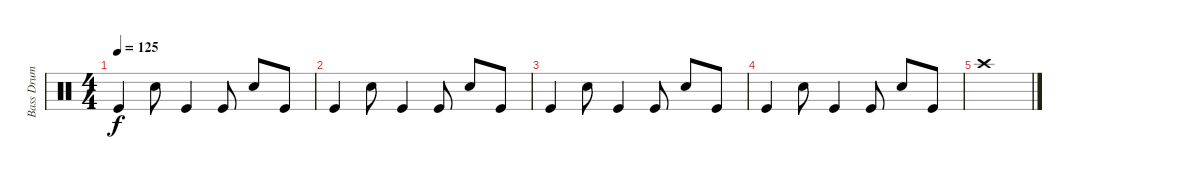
\track ("Bass Drum and Clap" "Bass Drum ") {instrument percussion}
\staff {score}
\articulation defaults
\ts (4 4)
\tempo 125
\clef neutral
\ks c "Kick (hit)".4{dy f} "Hand Clap (hit)".8 "Kick (hit)".4 "Kick (hit)".8 "Hand Clap (hit)".8 "Kick (hit)".8
|
"Kick (hit)".4 "Hand Clap (hit)".8 "Kick (hit)".4 "Kick (hit)".8 "Hand Clap (hit)".8 "Kick (hit)".8 |
"Kick (hit)".4 "Hand Clap (hit)".8 "Kick (hit)".4 "Kick (hit)".8 "Hand Clap (hit)".8 "Kick (hit)".8 |
"Kick (hit)".4 "Hand Clap (hit)".8 "Kick (hit)".4 "Kick (hit)".8 "Hand Clap (hit)".8 "Kick (hit)".8 |
"Crash high (hit)".1
